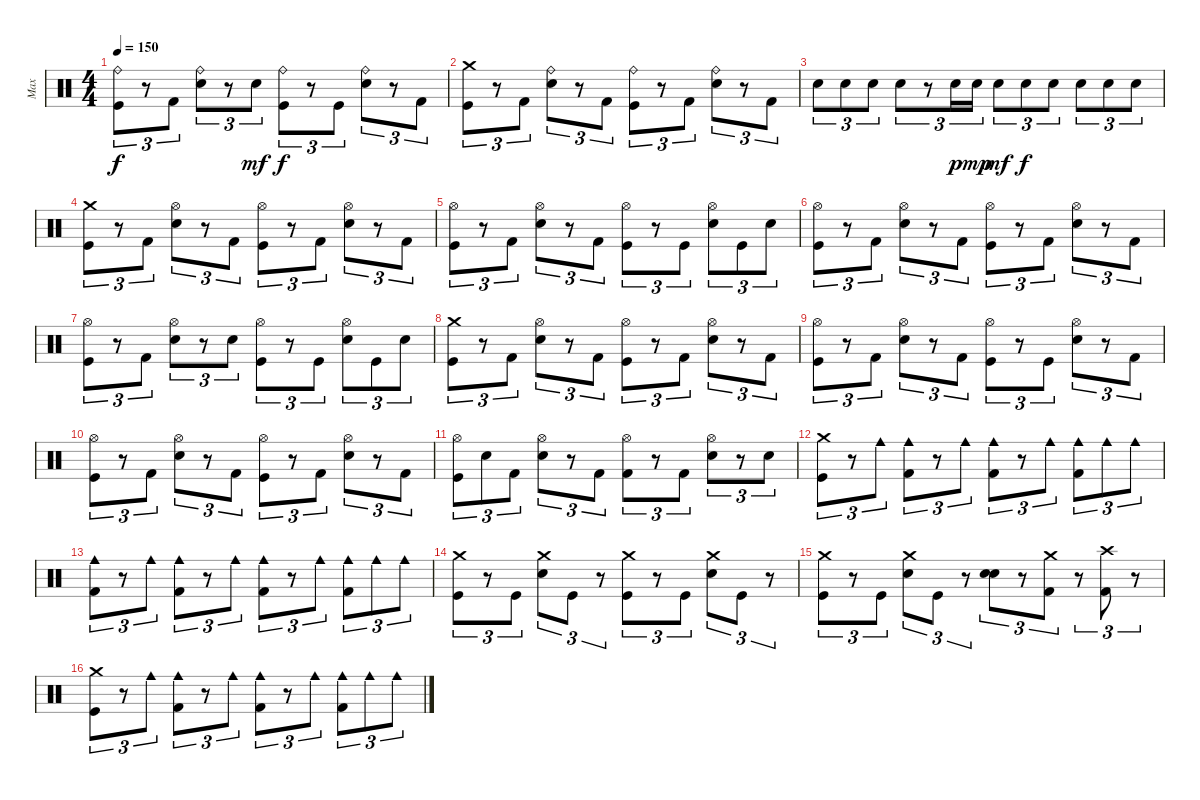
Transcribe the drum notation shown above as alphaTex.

\track ("Max" "Max") {instrument percussion}
\staff {score}
\articulation defaults
\ts (4 4)
\tempo 150
\clef neutral
\ks c
("Ride (bell)" "Kick (hit)").8{tu (3 2) dy f} r.8{tu (3 2)} "Kick (hit) 2".8{tu (3 2)} ("Ride (bell)" "Electric Snare (hit)").8{tu (3 2)} r.8{tu (3 2)} "Electric Snare (hit)".8{tu (3 2) dy mf} ("Ride (bell)" "Kick (hit)").8{tu (3 2) dy f} r.8{tu (3 2)} "Kick (hit)".8{tu (3 2)} ("Ride (bell)" "Electric Snare (hit)").8{tu (3 2)} r.8{tu (3 2)} "Kick (hit) 2".8{tu (3 2)} |
("Crash medium (hit)" "Kick (hit)").8{tu (3 2)} r.8{tu (3 2)} "Kick (hit) 2".8{tu (3 2)} ("Ride (bell)" "Electric Snare (hit)").8{tu (3 2)} r.8{tu (3 2)} "Kick (hit) 2".8{tu (3 2)} ("Ride (bell)" "Kick (hit)").8{tu (3 2)} r.8{tu (3 2)} "Kick (hit) 2".8{tu (3 2)} ("Ride (bell)" "Electric Snare (hit)").8{tu (3 2)} r.8{tu (3 2)} "Kick (hit) 2".8{tu (3 2)} |
"Electric Snare (hit)".8{tu (3 2)} "Electric Snare (hit)".8{tu (3 2)} "Electric Snare (hit)".8{tu (3 2)} "Electric Snare (hit)".8{tu (3 2)} r.8{tu (3 2)} "Electric Snare (hit)".16{tu (3 2) dy p} "Electric Snare (hit)".16{tu (3 2) dy mp} "Electric Snare (hit)".8{tu (3 2) dy mf} "Electric Snare (hit)".8{tu (3 2) dy f} "Electric Snare (hit)".8{tu (3 2)} "Electric Snare (hit)".8{tu (3 2)} "Electric Snare (hit)".8{tu (3 2)} "Electric Snare (hit)".8{tu (3 2)} |
("Crash medium (hit)" "Kick (hit)").8{tu (3 2)} r.8{tu (3 2)} "Kick (hit) 2".8{tu (3 2)} ("Hi-Hat (open)" "Electric Snare (hit)").8{tu (3 2)} r.8{tu (3 2)} "Kick (hit) 2".8{tu (3 2)} ("Hi-Hat (open)" "Kick (hit)").8{tu (3 2)} r.8{tu (3 2)} "Kick (hit) 2".8{tu (3 2)} ("Hi-Hat (open)" "Electric Snare (hit)").8{tu (3 2)} r.8{tu (3 2)} "Kick (hit) 2".8{tu (3 2)} |
("Hi-Hat (open)" "Kick (hit)").8{tu (3 2)} r.8{tu (3 2)} "Kick (hit) 2".8{tu (3 2)} ("Hi-Hat (open)" "Electric Snare (hit)").8{tu (3 2)} r.8{tu (3 2)} "Kick (hit) 2".8{tu (3 2)} ("Hi-Hat (open)" "Kick (hit)").8{tu (3 2)} r.8{tu (3 2)} "Kick (hit)".8{tu (3 2)} ("Hi-Hat (open)" "Electric Snare (hit)").8{tu (3 2)} "Kick (hit)".8{tu (3 2)} "Electric Snare (hit)".8{tu (3 2)} |
("Hi-Hat (open)" "Kick (hit)").8{tu (3 2)} r.8{tu (3 2)} "Kick (hit) 2".8{tu (3 2)} ("Hi-Hat (open)" "Electric Snare (hit)").8{tu (3 2)} r.8{tu (3 2)} "Kick (hit) 2".8{tu (3 2)} ("Hi-Hat (open)" "Kick (hit)").8{tu (3 2)} r.8{tu (3 2)} "Kick (hit) 2".8{tu (3 2)} ("Hi-Hat (open)" "Electric Snare (hit)").8{tu (3 2)} r.8{tu (3 2)} "Kick (hit) 2".8{tu (3 2)} |
("Hi-Hat (open)" "Kick (hit)").8{tu (3 2)} r.8{tu (3 2)} "Kick (hit) 2".8{tu (3 2)} ("Hi-Hat (open)" "Electric Snare (hit)").8{tu (3 2)} r.8{tu (3 2)} "Electric Snare (hit)".8{tu (3 2)} ("Hi-Hat (open)" "Kick (hit)").8{tu (3 2)} r.8{tu (3 2)} "Kick (hit)".8{tu (3 2)} ("Hi-Hat (open)" "Electric Snare (hit)").8{tu (3 2)} "Kick (hit)".8{tu (3 2)} "Electric Snare (hit)".8{tu (3 2)} |
("Crash medium (hit)" "Kick (hit)").8{tu (3 2)} r.8{tu (3 2)} "Kick (hit) 2".8{tu (3 2)} ("Hi-Hat (open)" "Electric Snare (hit)").8{tu (3 2)} r.8{tu (3 2)} "Kick (hit) 2".8{tu (3 2)} ("Hi-Hat (open)" "Kick (hit)").8{tu (3 2)} r.8{tu (3 2)} "Kick (hit) 2".8{tu (3 2)} ("Hi-Hat (open)" "Electric Snare (hit)").8{tu (3 2)} r.8{tu (3 2)} "Kick (hit) 2".8{tu (3 2)} |
("Hi-Hat (open)" "Kick (hit)").8{tu (3 2)} r.8{tu (3 2)} "Kick (hit) 2".8{tu (3 2)} ("Hi-Hat (open)" "Electric Snare (hit)").8{tu (3 2)} r.8{tu (3 2)} "Kick (hit) 2".8{tu (3 2)} ("Hi-Hat (open)" "Kick (hit)").8{tu (3 2)} r.8{tu (3 2)} "Kick (hit)".8{tu (3 2)} ("Hi-Hat (open)" "Electric Snare (hit)").8{tu (3 2)} r.8{tu (3 2)} "Kick (hit) 2".8{tu (3 2)} |
("Hi-Hat (open)" "Kick (hit)").8{tu (3 2)} r.8{tu (3 2)} "Kick (hit) 2".8{tu (3 2)} ("Hi-Hat (open)" "Electric Snare (hit)").8{tu (3 2)} r.8{tu (3 2)} "Kick (hit) 2".8{tu (3 2)} ("Hi-Hat (open)" "Kick (hit)").8{tu (3 2)} r.8{tu (3 2)} "Kick (hit) 2".8{tu (3 2)} ("Hi-Hat (open)" "Electric Snare (hit)").8{tu (3 2)} r.8{tu (3 2)} "Kick (hit) 2".8{tu (3 2)} |
("Hi-Hat (open)" "Kick (hit)").8{tu (3 2)} "Electric Snare (hit)".8{tu (3 2)} "Kick (hit) 2".8{tu (3 2)} ("Hi-Hat (open)" "Electric Snare (hit)").8{tu (3 2)} r.8{tu (3 2)} "Kick (hit) 2".8{tu (3 2)} ("Hi-Hat (open)" "Kick (hit) 2").8{tu (3 2)} r.8{tu (3 2)} "Kick (hit) 2".8{tu (3 2)} ("Hi-Hat (open)" "Electric Snare (hit)").8{tu (3 2)} r.8{tu (3 2)} "Electric Snare (hit)".8{tu (3 2)} |
("Crash medium (hit)" "Kick (hit)").8{tu (3 2)} r.8{tu (3 2)} "Cowbell medium (hit)".8{tu (3 2)} ("Cowbell medium (hit)" "Kick (hit) 2").8{tu (3 2)} r.8{tu (3 2)} "Cowbell medium (hit)".8{tu (3 2)} ("Cowbell medium (hit)" "Kick (hit) 2").8{tu (3 2)} r.8{tu (3 2)} "Cowbell medium (hit)".8{tu (3 2)} ("Cowbell medium (hit)" "Kick (hit) 2").8{tu (3 2)} "Cowbell medium (hit)".8{tu (3 2)} "Cowbell medium (hit)".8{tu (3 2)} |
("Cowbell medium (hit)" "Kick (hit) 2").8{tu (3 2)} r.8{tu (3 2)} "Cowbell medium (hit)".8{tu (3 2)} ("Cowbell medium (hit)" "Kick (hit) 2").8{tu (3 2)} r.8{tu (3 2)} "Cowbell medium (hit)".8{tu (3 2)} ("Cowbell medium (hit)" "Kick (hit) 2").8{tu (3 2)} r.8{tu (3 2)} "Cowbell medium (hit)".8{tu (3 2)} ("Cowbell medium (hit)" "Kick (hit) 2").8{tu (3 2)} "Cowbell medium (hit)".8{tu (3 2)} "Cowbell medium (hit)".8{tu (3 2)} |
("Crash medium (hit)" "Kick (hit)").8{tu (3 2)} r.8{tu (3 2)} "Kick (hit)".8{tu (3 2)} ("Crash medium (hit)" "Electric Snare (hit)").8{tu (3 2)} "Kick (hit)".8{tu (3 2)} r.8{tu (3 2)} ("Crash medium (hit)" "Kick (hit)").8{tu (3 2)} r.8{tu (3 2)} "Kick (hit)".8{tu (3 2)} ("Crash medium (hit)" "Electric Snare (hit)").8{tu (3 2)} "Kick (hit)".8{tu (3 2)} r.8{tu (3 2)} |
("Crash medium (hit)" "Kick (hit)").8{tu (3 2)} r.8{tu (3 2)} "Kick (hit)".8{tu (3 2)} ("Crash medium (hit)" "Electric Snare (hit)").8{tu (3 2)} "Kick (hit)".8{tu (3 2)} r.8{tu (3 2)} ("Electric Snare (hit)" "Electric Snare (hit)").8{tu (3 2) bu 60} r.8{tu (3 2)} ("Crash medium (hit)" "Kick (hit) 2").8{tu (3 2)} r.8{tu (3 2)} ("Crash high (hit)" "Kick (hit) 2").8{tu (3 2)} r.8{tu (3 2)} |
("Crash medium (hit)" "Kick (hit)").8{tu (3 2)} r.8{tu (3 2)} "Cowbell medium (hit)".8{tu (3 2)} ("Cowbell medium (hit)" "Kick (hit) 2").8{tu (3 2)} r.8{tu (3 2)} "Cowbell medium (hit)".8{tu (3 2)} ("Cowbell medium (hit)" "Kick (hit) 2").8{tu (3 2)} r.8{tu (3 2)} "Cowbell medium (hit)".8{tu (3 2)} ("Cowbell medium (hit)" "Kick (hit) 2").8{tu (3 2)} "Cowbell medium (hit)".8{tu (3 2)} "Cowbell medium (hit)".8{tu (3 2)}
